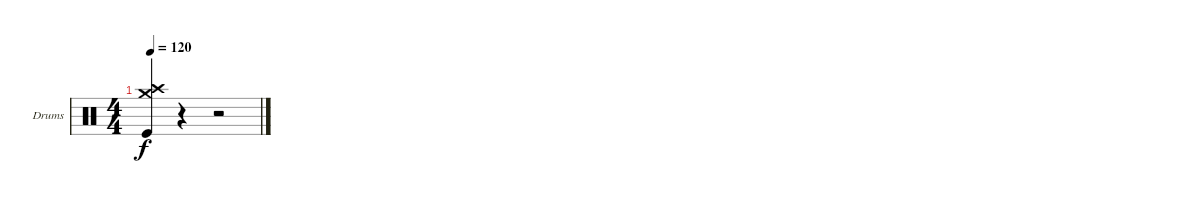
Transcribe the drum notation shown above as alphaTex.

\defaultSystemsLayout 4
\bracketExtendMode groupsimilarinstruments
\firstSystemTrackNameOrientation horizontal
\otherSystemsTrackNameOrientation horizontal
\track ("Drumkit" "Drums") {mute instrument percussion}
\staff {score}
\articulation defaults
\ts (4 4)
\tempo 120
\clef neutral
\ks c
("Crash medium (hit)" "Kick (hit)" "Crash high (hit)").4{dy f beam invert} r.4 r.2
